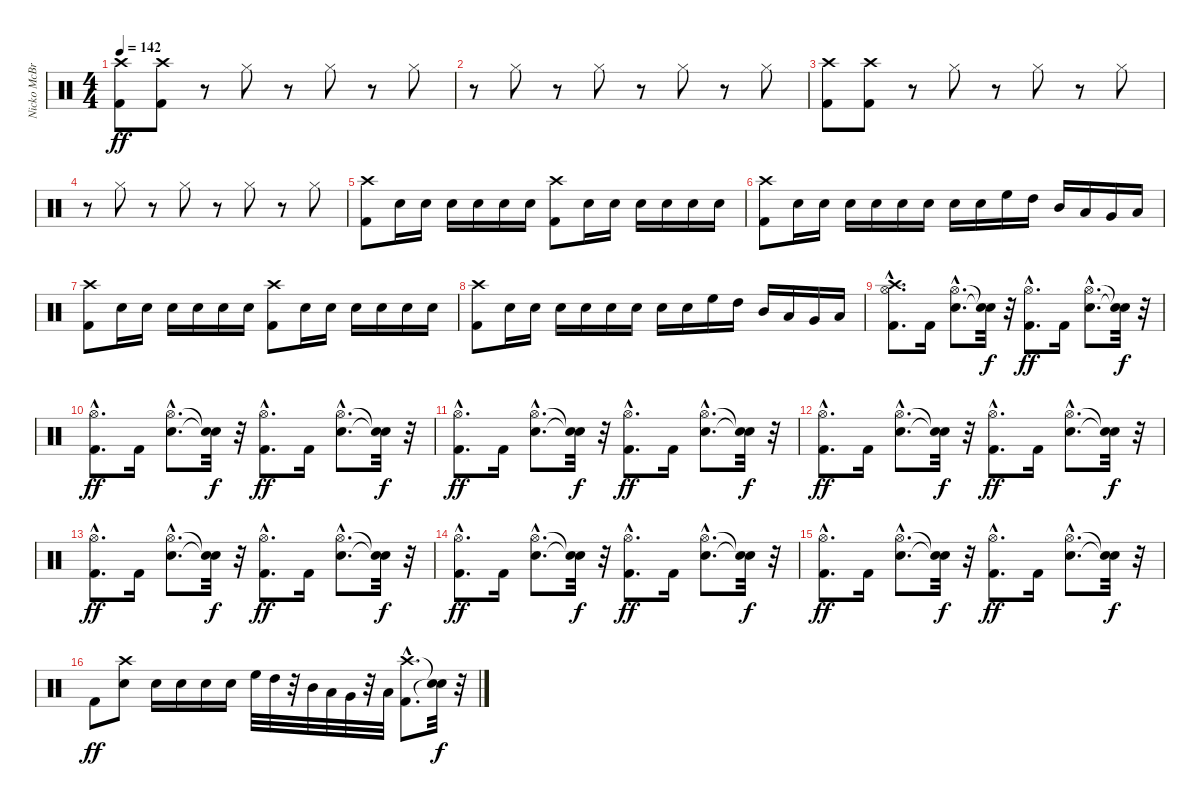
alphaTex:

\track ("Nicko McBrain" "Nicko McBr") {instrument percussion}
\staff {score}
\articulation defaults
\ts (4 4)
\tempo 142
\clef neutral
\ks c
("Kick (hit) 2" "Crash high (hit)").8{dy ff} ("Kick (hit) 2" "Crash high (hit)").8 r.8 "Hi-Hat (closed)".8 r.8 "Hi-Hat (closed)".8 r.8 "Hi-Hat (closed)".8 |
r.8 "Hi-Hat (closed)".8 r.8 "Hi-Hat (closed)".8 r.8 "Hi-Hat (closed)".8 r.8 "Hi-Hat (closed)".8 |
("Kick (hit) 2" "Crash high (hit)").8 ("Kick (hit) 2" "Crash high (hit)").8 r.8 "Hi-Hat (closed)".8 r.8 "Hi-Hat (closed)".8 r.8 "Hi-Hat (closed)".8 |
r.8 "Hi-Hat (closed)".8 r.8 "Hi-Hat (closed)".8 r.8 "Hi-Hat (closed)".8 r.8 "Hi-Hat (closed)".8 |
("Kick (hit) 2" "Crash high (hit)").8 "Snare (hit) 2".16 "Snare (hit) 2".16 "Snare (hit) 2".16 "Snare (hit) 2".16 "Snare (hit) 2".16 "Snare (hit) 2".16 ("Kick (hit) 2" "Crash high (hit)").8 "Snare (hit) 2".16 "Snare (hit) 2".16 "Snare (hit) 2".16 "Snare (hit) 2".16 "Snare (hit) 2".16 "Snare (hit) 2".16 |
("Kick (hit) 2" "Crash high (hit)").8 "Snare (hit) 2".16 "Snare (hit) 2".16 "Snare (hit) 2".16 "Snare (hit) 2".16 "Snare (hit) 2".16 "Snare (hit) 2".16 "Snare (hit) 2".16 "Snare (hit) 2".16 "High Floor Tom (hit)".16 "High Tom (hit)".16 "Mid Tom (hit)".16 "Low Tom (hit)".16 "Very Low Tom (hit)".16 "Low Floor Tom (hit)".16 |
("Kick (hit) 2" "Crash high (hit)").8 "Snare (hit) 2".16 "Snare (hit) 2".16 "Snare (hit) 2".16 "Snare (hit) 2".16 "Snare (hit) 2".16 "Snare (hit) 2".16 ("Kick (hit) 2" "Crash high (hit)").8 "Snare (hit) 2".16 "Snare (hit) 2".16 "Snare (hit) 2".16 "Snare (hit) 2".16 "Snare (hit) 2".16 "Snare (hit) 2".16 |
("Kick (hit) 2" "Crash high (hit)").8 "Snare (hit) 2".16 "Snare (hit) 2".16 "Snare (hit) 2".16 "Snare (hit) 2".16 "Snare (hit) 2".16 "Snare (hit) 2".16 "Snare (hit) 2".16 "Snare (hit) 2".16 "High Floor Tom (hit)".16 "High Tom (hit)".16 "Mid Tom (hit)".16 "Low Tom (hit)".16 "Very Low Tom (hit)".16 "Low Floor Tom (hit)".16 |
("Kick (hit) 2"{hac} "Hi-Hat (open)"{hac} "Crash high (hit)"{hac}).8{d} "Kick (hit) 2".16 ("Snare (hit) 2"{hac} "Hi-Hat (open)"{hac}).8{d} ("Snare (hit)"{t} "Snare (hit)"{t}).32{dy f} r.32 ("Kick (hit) 2"{hac} "Hi-Hat (open)"{hac}).8{d dy ff} "Kick (hit) 2".16 ("Snare (hit) 2"{hac} "Hi-Hat (open)"{hac}).8{d} ("Snare (hit)"{t} "Snare (hit)"{t}).32{dy f} r.32 |
("Kick (hit) 2"{hac} "Hi-Hat (open)"{hac}).8{d dy ff} "Kick (hit) 2".16 ("Snare (hit) 2"{hac} "Hi-Hat (open)"{hac}).8{d} ("Snare (hit)"{t} "Snare (hit)"{t}).32{dy f} r.32 ("Kick (hit) 2"{hac} "Hi-Hat (open)"{hac}).8{d dy ff} "Kick (hit) 2".16 ("Snare (hit) 2"{hac} "Hi-Hat (open)"{hac}).8{d} ("Snare (hit)"{t} "Snare (hit)"{t}).32{dy f} r.32 |
("Kick (hit) 2"{hac} "Hi-Hat (open)"{hac}).8{d dy ff} "Kick (hit) 2".16 ("Snare (hit) 2"{hac} "Hi-Hat (open)"{hac}).8{d} ("Snare (hit)"{t} "Snare (hit)"{t}).32{dy f} r.32 ("Kick (hit) 2"{hac} "Hi-Hat (open)"{hac}).8{d dy ff} "Kick (hit) 2".16 ("Snare (hit) 2"{hac} "Hi-Hat (open)"{hac}).8{d} ("Snare (hit)"{t} "Snare (hit)"{t}).32{dy f} r.32 |
("Kick (hit) 2"{hac} "Hi-Hat (open)"{hac}).8{d dy ff} "Kick (hit) 2".16 ("Snare (hit) 2"{hac} "Hi-Hat (open)"{hac}).8{d} ("Snare (hit)"{t} "Snare (hit)"{t}).32{dy f} r.32 ("Kick (hit) 2"{hac} "Hi-Hat (open)"{hac}).8{d dy ff} "Kick (hit) 2".16 ("Snare (hit) 2"{hac} "Hi-Hat (open)"{hac}).8{d} ("Snare (hit)"{t} "Snare (hit)"{t}).32{dy f} r.32 |
("Kick (hit) 2"{hac} "Hi-Hat (open)"{hac}).8{d dy ff} "Kick (hit) 2".16 ("Snare (hit) 2"{hac} "Hi-Hat (open)"{hac}).8{d} ("Snare (hit)"{t} "Snare (hit)"{t}).32{dy f} r.32 ("Kick (hit) 2"{hac} "Hi-Hat (open)"{hac}).8{d dy ff} "Kick (hit) 2".16 ("Snare (hit) 2"{hac} "Hi-Hat (open)"{hac}).8{d} ("Snare (hit)"{t} "Snare (hit)"{t}).32{dy f} r.32 |
("Kick (hit) 2"{hac} "Hi-Hat (open)"{hac}).8{d dy ff} "Kick (hit) 2".16 ("Snare (hit) 2"{hac} "Hi-Hat (open)"{hac}).8{d} ("Snare (hit)"{t} "Snare (hit)"{t}).32{dy f} r.32 ("Kick (hit) 2"{hac} "Hi-Hat (open)"{hac}).8{d dy ff} "Kick (hit) 2".16 ("Snare (hit) 2"{hac} "Hi-Hat (open)"{hac}).8{d} ("Snare (hit)"{t} "Snare (hit)"{t}).32{dy f} r.32 |
("Kick (hit) 2"{hac} "Hi-Hat (open)"{hac}).8{d dy ff} "Kick (hit) 2".16 ("Snare (hit) 2"{hac} "Hi-Hat (open)"{hac}).8{d} ("Snare (hit)"{t} "Snare (hit)"{t}).32{dy f} r.32 ("Kick (hit) 2"{hac} "Hi-Hat (open)"{hac}).8{d dy ff} "Kick (hit) 2".16 ("Snare (hit) 2"{hac} "Hi-Hat (open)"{hac}).8{d} ("Snare (hit)"{t} "Snare (hit)"{t}).32{dy f} r.32 |
"Kick (hit) 2".8{dy ff} ("Snare (hit) 2" "Crash high (hit)").8 "Snare (hit) 2".16 "Snare (hit) 2".16 "Snare (hit) 2".16 "Snare (hit) 2".16 "High Floor Tom (hit)".32 "High Tom (hit)".32 r.32 "Mid Tom (hit)".32 "Low Tom (hit)".32 "Very Low Tom (hit)".32 r.32 "Low Floor Tom (hit)".32 ("Kick (hit) 2"{hac} "Crash high (hit)"{hac}).8{d} ("Snare (hit)"{t} "Snare (hit)"{t}).32{dy f} r.32
